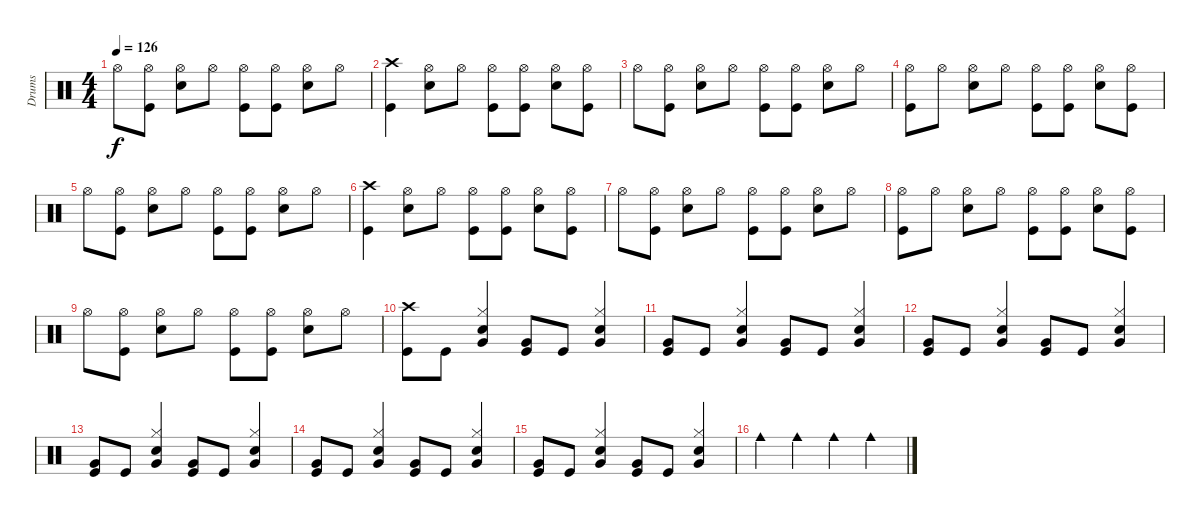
\track ("Drums" "Drums") {instrument percussion}
\staff {score}
\articulation defaults
\ts (4 4)
\tempo 126
\clef neutral
\ks c "Hi-Hat (open)".8{dy f}
("Hi-Hat (open)" "Kick (hit)").8 ("Snare (hit) 2" "Hi-Hat (open)").8 "Hi-Hat (open)".8 ("Hi-Hat (open)" "Kick (hit)").8 ("Hi-Hat (open)" "Kick (hit)").8 ("Hi-Hat (open)" "Snare (hit) 2").8 "Hi-Hat (open)".8 |
("Crash high (hit)" "Kick (hit)").4 ("Hi-Hat (open)" "Snare (hit) 2").8 "Hi-Hat (open)".8 ("Hi-Hat (open)" "Kick (hit)").8 ("Hi-Hat (open)" "Kick (hit)").8 ("Hi-Hat (open)" "Snare (hit) 2").8 ("Hi-Hat (open)" "Kick (hit)").8 |
"Hi-Hat (open)".8 ("Hi-Hat (open)" "Kick (hit)").8 ("Snare (hit) 2" "Hi-Hat (open)").8 "Hi-Hat (open)".8 ("Hi-Hat (open)" "Kick (hit)").8 ("Hi-Hat (open)" "Kick (hit)").8 ("Hi-Hat (open)" "Snare (hit) 2").8 "Hi-Hat (open)".8 |
("Hi-Hat (open)" "Kick (hit)").8 "Hi-Hat (open)".8 ("Hi-Hat (open)" "Snare (hit) 2").8 "Hi-Hat (open)".8 ("Hi-Hat (open)" "Kick (hit)").8 ("Hi-Hat (open)" "Kick (hit)").8 ("Hi-Hat (open)" "Snare (hit) 2").8 ("Hi-Hat (open)" "Kick (hit)").8 |
"Hi-Hat (open)".8 ("Hi-Hat (open)" "Kick (hit)").8 ("Snare (hit) 2" "Hi-Hat (open)").8 "Hi-Hat (open)".8 ("Hi-Hat (open)" "Kick (hit)").8 ("Hi-Hat (open)" "Kick (hit)").8 ("Hi-Hat (open)" "Snare (hit) 2").8 "Hi-Hat (open)".8 |
("Crash high (hit)" "Kick (hit)").4 ("Hi-Hat (open)" "Snare (hit) 2").8 "Hi-Hat (open)".8 ("Hi-Hat (open)" "Kick (hit)").8 ("Hi-Hat (open)" "Kick (hit)").8 ("Hi-Hat (open)" "Snare (hit) 2").8 ("Hi-Hat (open)" "Kick (hit)").8 |
"Hi-Hat (open)".8 ("Hi-Hat (open)" "Kick (hit)").8 ("Snare (hit) 2" "Hi-Hat (open)").8 "Hi-Hat (open)".8 ("Hi-Hat (open)" "Kick (hit)").8 ("Hi-Hat (open)" "Kick (hit)").8 ("Hi-Hat (open)" "Snare (hit) 2").8 "Hi-Hat (open)".8 |
("Hi-Hat (open)" "Kick (hit)").8 "Hi-Hat (open)".8 ("Hi-Hat (open)" "Snare (hit) 2").8 "Hi-Hat (open)".8 ("Hi-Hat (open)" "Kick (hit)").8 ("Hi-Hat (open)" "Kick (hit)").8 ("Hi-Hat (open)" "Snare (hit) 2").8 ("Hi-Hat (open)" "Kick (hit)").8 |
"Hi-Hat (open)".8 ("Hi-Hat (open)" "Kick (hit)").8 ("Snare (hit) 2" "Hi-Hat (open)").8 "Hi-Hat (open)".8 ("Hi-Hat (open)" "Kick (hit)").8 ("Hi-Hat (open)" "Kick (hit)").8 ("Hi-Hat (open)" "Snare (hit) 2").8 "Hi-Hat (open)".8 |
("Crash high (hit)" "Kick (hit)").8 "Kick (hit)".8 ("Hi-Hat (closed)" "Very Low Tom (hit)" "Snare (hit) 2").4 ("Very Low Tom (hit)" "Kick (hit)").8 "Kick (hit)".8 ("Hi-Hat (closed)" "Very Low Tom (hit)" "Snare (hit) 2").4 |
("Very Low Tom (hit)" "Kick (hit)").8 "Kick (hit)".8 ("Hi-Hat (closed)" "Snare (hit) 2" "Very Low Tom (hit)").4 ("Very Low Tom (hit)" "Kick (hit)").8 "Kick (hit)".8 ("Hi-Hat (closed)" "Very Low Tom (hit)" "Snare (hit) 2").4 |
("Very Low Tom (hit)" "Kick (hit)").8 "Kick (hit)".8 ("Hi-Hat (closed)" "Very Low Tom (hit)" "Snare (hit) 2").4 ("Very Low Tom (hit)" "Kick (hit)").8 "Kick (hit)".8 ("Hi-Hat (closed)" "Very Low Tom (hit)" "Snare (hit) 2").4 |
("Very Low Tom (hit)" "Kick (hit)").8 "Kick (hit)".8 ("Snare (hit) 2" "Very Low Tom (hit)" "Hi-Hat (closed)").4 ("Very Low Tom (hit)" "Kick (hit)").8 "Kick (hit)".8 ("Very Low Tom (hit)" "Snare (hit) 2" "Hi-Hat (closed)").4 |
("Very Low Tom (hit)" "Kick (hit)").8 "Kick (hit)".8 ("Hi-Hat (closed)" "Very Low Tom (hit)" "Snare (hit) 2").4 ("Very Low Tom (hit)" "Kick (hit)").8 "Kick (hit)".8 ("Hi-Hat (closed)" "Very Low Tom (hit)" "Snare (hit) 2").4 |
("Very Low Tom (hit)" "Kick (hit)").8 "Kick (hit)".8 ("Hi-Hat (closed)" "Snare (hit) 2" "Very Low Tom (hit)").4 ("Very Low Tom (hit)" "Kick (hit)").8 "Kick (hit)".8 ("Hi-Hat (closed)" "Very Low Tom (hit)" "Snare (hit) 2").4 |
"Cowbell medium (hit)".4 "Cowbell medium (hit)".4 "Cowbell medium (hit)".4 "Cowbell medium (hit)".4
